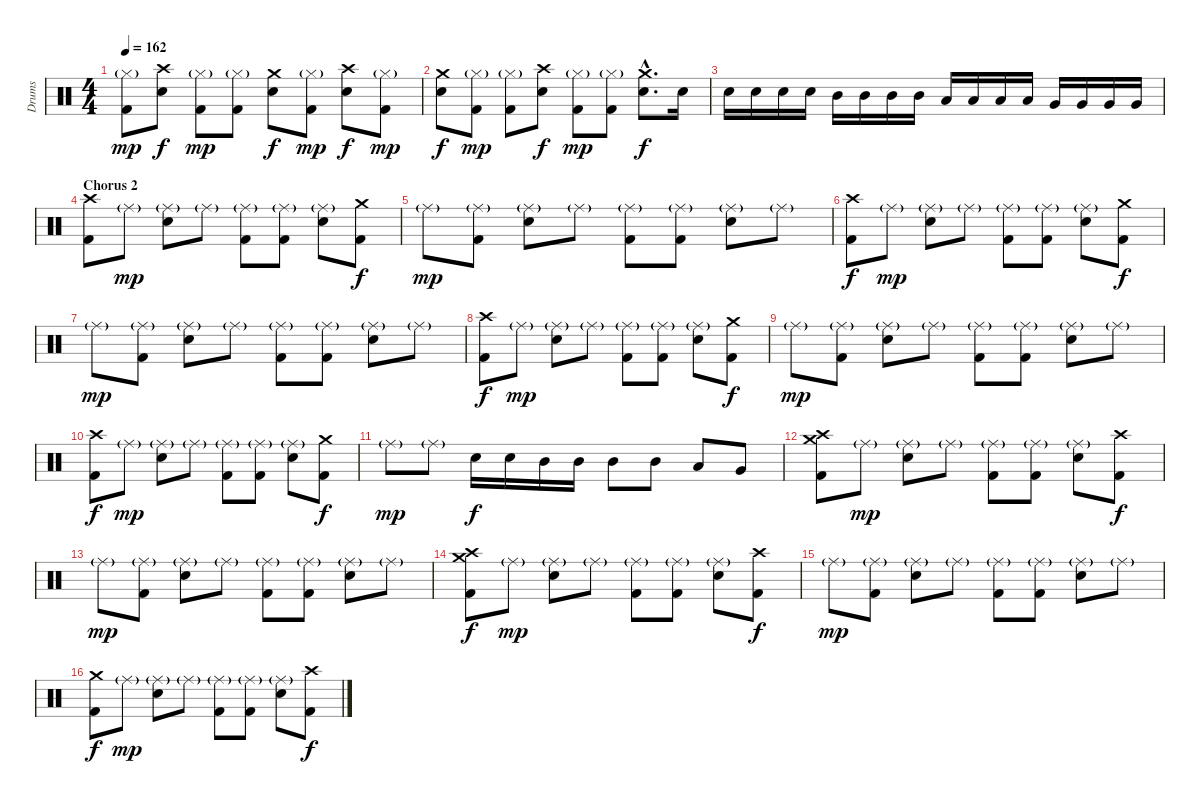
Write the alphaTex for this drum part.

\track ("Drums" "Drums") {instrument percussion}
\staff {score}
\articulation defaults
\ts (4 4)
\tempo 162
\clef neutral
\ks c
("Hi-Hat (closed)"{g} "Kick (hit) 2").8{dy mp} ("Crash high (hit)" "Snare (hit) 2").8{dy f} ("Hi-Hat (closed)"{g} "Kick (hit) 2").8{dy mp} ("Hi-Hat (closed)"{g} "Kick (hit) 2").8 ("Crash medium (hit)" "Snare (hit) 2").8{dy f} ("Hi-Hat (closed)"{g} "Kick (hit) 2").8{dy mp} ("Crash high (hit)" "Snare (hit) 2").8{dy f} ("Hi-Hat (closed)"{g} "Kick (hit) 2").8{dy mp} |
("Crash medium (hit)" "Snare (hit) 2").8{dy f} ("Hi-Hat (closed)"{g} "Kick (hit) 2").8{dy mp} ("Hi-Hat (closed)"{g} "Kick (hit) 2").8 ("Crash high (hit)" "Snare (hit) 2").8{dy f} ("Hi-Hat (closed)"{g} "Kick (hit) 2").8{dy mp} ("Hi-Hat (closed)"{g} "Kick (hit) 2").8 ("Crash medium (hit)"{hac} "Snare (hit) 2"{hac}).8{d dy f} "Snare (hit) 2".16 |
"Snare (hit) 2".16 "Snare (hit) 2".16 "Snare (hit) 2".16 "Snare (hit) 2".16 "Mid Tom (hit)".16 "Mid Tom (hit)".16 "Mid Tom (hit)".16 "Mid Tom (hit)".16 "Low Tom (hit)".16 "Low Tom (hit)".16 "Low Tom (hit)".16 "Low Tom (hit)".16 "Very Low Tom (hit)".16 "Very Low Tom (hit)".16 "Very Low Tom (hit)".16 "Very Low Tom (hit)".16 |
\section ("" "Chorus 2")
("Crash high (hit)" "Kick (hit) 2").8 "Ride (middle)"{g}.8{dy mp} ("Ride (middle)"{g} "Snare (hit) 2").8 "Ride (middle)"{g}.8 ("Ride (middle)"{g} "Kick (hit) 2").8 ("Ride (middle)"{g} "Kick (hit) 2").8 ("Ride (middle)"{g} "Snare (hit) 2").8 ("Crash medium (hit)" "Kick (hit) 2").8{dy f} |
"Ride (middle)"{g}.8{dy mp} ("Ride (middle)"{g} "Kick (hit) 2").8 ("Ride (middle)"{g} "Snare (hit) 2").8 "Ride (middle)"{g}.8 ("Ride (middle)"{g} "Kick (hit) 2").8 ("Ride (middle)"{g} "Kick (hit) 2").8 ("Ride (middle)"{g} "Snare (hit) 2").8 "Ride (middle)"{g}.8 |
("Crash high (hit)" "Kick (hit) 2").8{dy f} "Ride (middle)"{g}.8{dy mp} ("Ride (middle)"{g} "Snare (hit) 2").8 "Ride (middle)"{g}.8 ("Ride (middle)"{g} "Kick (hit) 2").8 ("Ride (middle)"{g} "Kick (hit) 2").8 ("Ride (middle)"{g} "Snare (hit) 2").8 ("Crash medium (hit)" "Kick (hit) 2").8{dy f} |
"Ride (middle)"{g}.8{dy mp} ("Ride (middle)"{g} "Kick (hit) 2").8 ("Ride (middle)"{g} "Snare (hit) 2").8 "Ride (middle)"{g}.8 ("Ride (middle)"{g} "Kick (hit) 2").8 ("Ride (middle)"{g} "Kick (hit) 2").8 ("Ride (middle)"{g} "Snare (hit) 2").8 "Ride (middle)"{g}.8 |
("Crash high (hit)" "Kick (hit) 2").8{dy f} "Ride (middle)"{g}.8{dy mp} ("Ride (middle)"{g} "Snare (hit) 2").8 "Ride (middle)"{g}.8 ("Ride (middle)"{g} "Kick (hit) 2").8 ("Ride (middle)"{g} "Kick (hit) 2").8 ("Ride (middle)"{g} "Snare (hit) 2").8 ("Crash medium (hit)" "Kick (hit) 2").8{dy f} |
"Ride (middle)"{g}.8{dy mp} ("Ride (middle)"{g} "Kick (hit) 2").8 ("Ride (middle)"{g} "Snare (hit) 2").8 "Ride (middle)"{g}.8 ("Ride (middle)"{g} "Kick (hit) 2").8 ("Ride (middle)"{g} "Kick (hit) 2").8 ("Ride (middle)"{g} "Snare (hit) 2").8 "Ride (middle)"{g}.8 |
("Crash high (hit)" "Kick (hit) 2").8{dy f} "Ride (middle)"{g}.8{dy mp} ("Ride (middle)"{g} "Snare (hit) 2").8 "Ride (middle)"{g}.8 ("Ride (middle)"{g} "Kick (hit) 2").8 ("Ride (middle)"{g} "Kick (hit) 2").8 ("Ride (middle)"{g} "Snare (hit) 2").8 ("Crash medium (hit)" "Kick (hit) 2").8{dy f} |
"Ride (middle)"{g}.8{dy mp} "Ride (middle)"{g}.8 "Snare (hit) 2".16{dy f} "Snare (hit) 2".16 "Mid Tom (hit)".16 "Mid Tom (hit)".16 "Mid Tom (hit)".8 "Mid Tom (hit)".8 "Low Tom (hit)".8 "Very Low Tom (hit)".8 |
("Crash medium (hit)" "Crash high (hit)" "Kick (hit) 2").8 "Ride (middle)"{g}.8{dy mp} ("Ride (middle)"{g} "Snare (hit) 2").8 "Ride (middle)"{g}.8 ("Ride (middle)"{g} "Kick (hit) 2").8 ("Ride (middle)"{g} "Kick (hit) 2").8 ("Ride (middle)"{g} "Snare (hit) 2").8 ("Crash high (hit)" "Kick (hit) 2").8{dy f} |
"Ride (middle)"{g}.8{dy mp} ("Ride (middle)"{g} "Kick (hit) 2").8 ("Ride (middle)"{g} "Snare (hit) 2").8 "Ride (middle)"{g}.8 ("Ride (middle)"{g} "Kick (hit) 2").8 ("Ride (middle)"{g} "Kick (hit) 2").8 ("Ride (middle)"{g} "Snare (hit) 2").8 "Ride (middle)"{g}.8 |
("Crash medium (hit)" "Crash high (hit)" "Kick (hit) 2").8{dy f} "Ride (middle)"{g}.8{dy mp} ("Ride (middle)"{g} "Snare (hit) 2").8 "Ride (middle)"{g}.8 ("Ride (middle)"{g} "Kick (hit) 2").8 ("Ride (middle)"{g} "Kick (hit) 2").8 ("Ride (middle)"{g} "Snare (hit) 2").8 ("Crash high (hit)" "Kick (hit) 2").8{dy f} |
"Ride (middle)"{g}.8{dy mp} ("Ride (middle)"{g} "Kick (hit) 2").8 ("Ride (middle)"{g} "Snare (hit) 2").8 "Ride (middle)"{g}.8 ("Ride (middle)"{g} "Kick (hit) 2").8 ("Ride (middle)"{g} "Kick (hit) 2").8 ("Ride (middle)"{g} "Snare (hit) 2").8 "Ride (middle)"{g}.8 |
("Crash medium (hit)" "Kick (hit) 2").8{dy f} "Ride (middle)"{g}.8{dy mp} ("Ride (middle)"{g} "Snare (hit) 2").8 "Ride (middle)"{g}.8 ("Ride (middle)"{g} "Kick (hit) 2").8 ("Ride (middle)"{g} "Kick (hit) 2").8 ("Ride (middle)"{g} "Snare (hit) 2").8 ("Crash high (hit)" "Kick (hit) 2").8{dy f}
